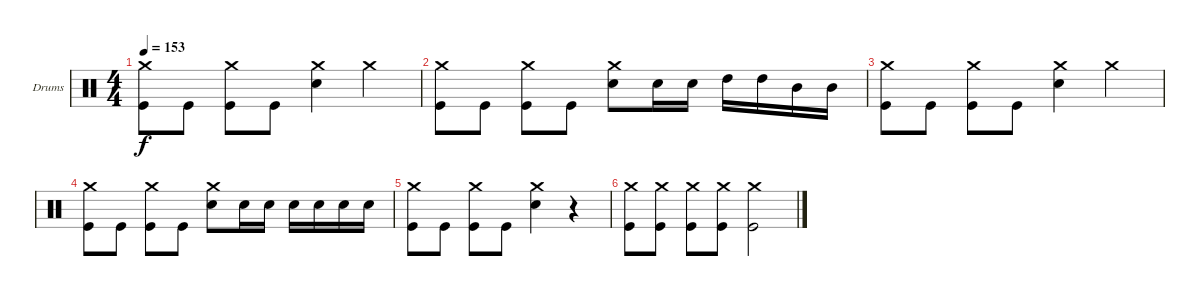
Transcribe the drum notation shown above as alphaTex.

\bracketExtendMode groupsimilarinstruments
\firstSystemTrackNameOrientation horizontal
\otherSystemsTrackNameOrientation horizontal
\track ("Drumkit" "Drums") {instrument percussion}
\staff {score}
\articulation defaults
\ts (4 4)
\tempo 153
\clef neutral
\ks c
("Crash medium (hit)" "Kick (hit)").8{dy f} "Kick (hit)".8 ("Crash medium (hit)" "Kick (hit)").8 "Kick (hit)".8 ("Crash medium (hit)" "Snare (hit) 2").4 "Crash medium (hit)".4 |
("Crash medium (hit)" "Kick (hit)").8 "Kick (hit)".8 ("Crash medium (hit)" "Kick (hit)").8 "Kick (hit)".8 ("Crash medium (hit)" "Snare (hit) 2").8 "Snare (hit) 2".16 "Snare (hit) 2".16 "High Tom (hit)".16 "High Tom (hit)".16 "Mid Tom (hit)".16 "Mid Tom (hit)".16 |
("Crash medium (hit)" "Kick (hit)").8 "Kick (hit)".8 ("Crash medium (hit)" "Kick (hit)").8 "Kick (hit)".8 ("Crash medium (hit)" "Snare (hit) 2").4 "Crash medium (hit)".4 |
("Crash medium (hit)" "Kick (hit)").8 "Kick (hit)".8 ("Crash medium (hit)" "Kick (hit)").8 "Kick (hit)".8 ("Crash medium (hit)" "Snare (hit) 2").8 "Snare (hit) 2".16 "Snare (hit) 2".16 "Snare (hit) 2".16 "Snare (hit) 2".16 "Snare (hit) 2".16 "Snare (hit) 2".16 |
("Crash medium (hit)" "Kick (hit)").8 "Kick (hit)".8 ("Crash medium (hit)" "Kick (hit)").8 "Kick (hit)".8 ("Crash medium (hit)" "Snare (hit) 2").4 r.4 |
("Crash medium (hit)" "Kick (hit)").8 ("Crash medium (hit)" "Kick (hit)").8 ("Crash medium (hit)" "Kick (hit)").8 ("Crash medium (hit)" "Kick (hit)").8 ("Crash medium (hit)" "Kick (hit)").2
